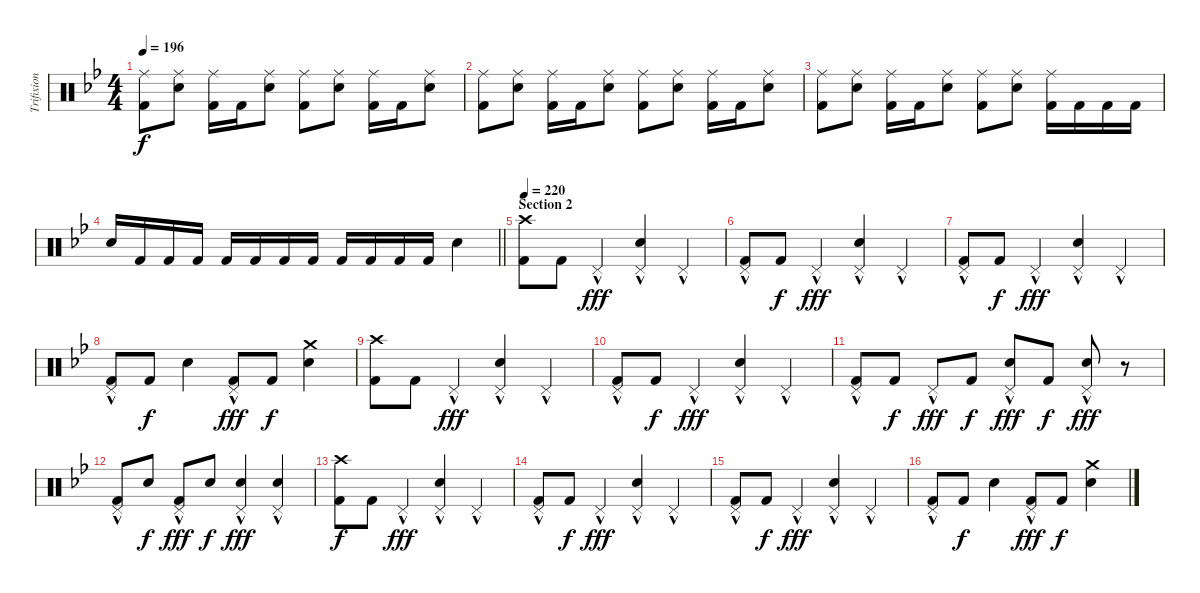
\track ("Trifixion" "Trifixion") {instrument percussion}
\staff {score}
\articulation defaults
\ts (4 4)
\tempo 196
\clef neutral
\ks gminor
("Ride (middle)" "Kick (hit) 2").8{dy f} ("Ride (middle)" "Electric Snare (hit)").8 ("Ride (middle)" "Kick (hit) 2").16 "Kick (hit) 2".16 ("Ride (middle)" "Electric Snare (hit)").8 ("Ride (middle)" "Kick (hit) 2").8 ("Ride (middle)" "Electric Snare (hit)").8 ("Ride (middle)" "Kick (hit) 2").16 "Kick (hit) 2".16 ("Ride (middle)" "Electric Snare (hit)").8 |
("Ride (middle)" "Kick (hit) 2").8 ("Ride (middle)" "Electric Snare (hit)").8 ("Ride (middle)" "Kick (hit) 2").16 "Kick (hit) 2".16 ("Ride (middle)" "Electric Snare (hit)").8 ("Ride (middle)" "Kick (hit) 2").8 ("Ride (middle)" "Electric Snare (hit)").8 ("Ride (middle)" "Kick (hit) 2").16 "Kick (hit) 2".16 ("Ride (middle)" "Electric Snare (hit)").8 |
("Ride (middle)" "Kick (hit) 2").8 ("Ride (middle)" "Electric Snare (hit)").8 ("Ride (middle)" "Kick (hit) 2").16 "Kick (hit) 2".16 ("Ride (middle)" "Electric Snare (hit)").8 ("Ride (middle)" "Kick (hit) 2").8 ("Ride (middle)" "Electric Snare (hit)").8 ("Ride (middle)" "Kick (hit) 2").16 "Kick (hit) 2".16 "Kick (hit) 2".16 "Kick (hit) 2".16 |
\barLineRight lightlight "Electric Snare (hit)".16 "Kick (hit) 2".16 "Kick (hit) 2".16 "Kick (hit) 2".16 "Kick (hit) 2".16 "Kick (hit) 2".16 "Kick (hit) 2".16 "Kick (hit) 2".16 "Kick (hit) 2".16 "Kick (hit) 2".16 "Kick (hit) 2".16 "Kick (hit) 2".16 "Electric Snare (hit)".4
|
\section ("" "Section 2")
\tempo 220
("Crash high (hit)" "Kick (hit) 2").8 "Kick (hit) 2".8 "Pedal Hi-Hat (hit)"{hac}.4{dy fff} ("Pedal Hi-Hat (hit)"{hac} "Electric Snare (hit)").4 "Pedal Hi-Hat (hit)"{hac}.4 |
("Pedal Hi-Hat (hit)"{hac} "Kick (hit) 2").8 "Kick (hit) 2".8{dy f} "Pedal Hi-Hat (hit)"{hac}.4{dy fff} ("Pedal Hi-Hat (hit)"{hac} "Electric Snare (hit)").4 "Pedal Hi-Hat (hit)"{hac}.4 |
("Pedal Hi-Hat (hit)"{hac} "Kick (hit) 2").8 "Kick (hit) 2".8{dy f} "Pedal Hi-Hat (hit)"{hac}.4{dy fff} ("Pedal Hi-Hat (hit)"{hac} "Electric Snare (hit)").4 "Pedal Hi-Hat (hit)"{hac}.4 |
("Pedal Hi-Hat (hit)"{hac} "Kick (hit) 2").8 "Kick (hit) 2".8{dy f} "Electric Snare (hit)".4 ("Pedal Hi-Hat (hit)"{hac} "Kick (hit) 2").8{dy fff} "Kick (hit) 2".8{dy f} ("Crash medium (hit)" "Electric Snare (hit)").4 |
("Crash high (hit)" "Kick (hit) 2").8 "Kick (hit) 2".8 "Pedal Hi-Hat (hit)"{hac}.4{dy fff} ("Pedal Hi-Hat (hit)"{hac} "Electric Snare (hit)").4 "Pedal Hi-Hat (hit)"{hac}.4 |
("Pedal Hi-Hat (hit)"{hac} "Kick (hit) 2").8 "Kick (hit) 2".8{dy f} "Pedal Hi-Hat (hit)"{hac}.4{dy fff} ("Pedal Hi-Hat (hit)"{hac} "Electric Snare (hit)").4 "Pedal Hi-Hat (hit)"{hac}.4 |
("Pedal Hi-Hat (hit)"{hac} "Kick (hit) 2").8 "Kick (hit) 2".8{dy f} "Pedal Hi-Hat (hit)"{hac}.8{dy fff} "Kick (hit) 2".8{dy f} ("Pedal Hi-Hat (hit)"{hac} "Electric Snare (hit)").8{dy fff} "Kick (hit) 2".8{dy f} ("Pedal Hi-Hat (hit)"{hac} "Electric Snare (hit)").8{dy fff} r.8 |
("Pedal Hi-Hat (hit)"{hac} "Kick (hit) 2").8 "Electric Snare (hit)".8{dy f} ("Pedal Hi-Hat (hit)"{hac} "Kick (hit) 2").8{dy fff} "Electric Snare (hit)".8{dy f} ("Pedal Hi-Hat (hit)"{hac} "Electric Snare (hit)").4{dy fff} ("Pedal Hi-Hat (hit)"{hac} "Electric Snare (hit)").4 |
("Crash high (hit)" "Kick (hit) 2").8{dy f} "Kick (hit) 2".8 "Pedal Hi-Hat (hit)"{hac}.4{dy fff} ("Pedal Hi-Hat (hit)"{hac} "Electric Snare (hit)").4 "Pedal Hi-Hat (hit)"{hac}.4 |
("Pedal Hi-Hat (hit)"{hac} "Kick (hit) 2").8 "Kick (hit) 2".8{dy f} "Pedal Hi-Hat (hit)"{hac}.4{dy fff} ("Pedal Hi-Hat (hit)"{hac} "Electric Snare (hit)").4 "Pedal Hi-Hat (hit)"{hac}.4 |
("Pedal Hi-Hat (hit)"{hac} "Kick (hit) 2").8 "Kick (hit) 2".8{dy f} "Pedal Hi-Hat (hit)"{hac}.4{dy fff} ("Pedal Hi-Hat (hit)"{hac} "Electric Snare (hit)").4 "Pedal Hi-Hat (hit)"{hac}.4 |
("Pedal Hi-Hat (hit)"{hac} "Kick (hit) 2").8 "Kick (hit) 2".8{dy f} "Electric Snare (hit)".4 ("Pedal Hi-Hat (hit)"{hac} "Kick (hit) 2").8{dy fff} "Kick (hit) 2".8{dy f} ("Crash medium (hit)" "Electric Snare (hit)").4
